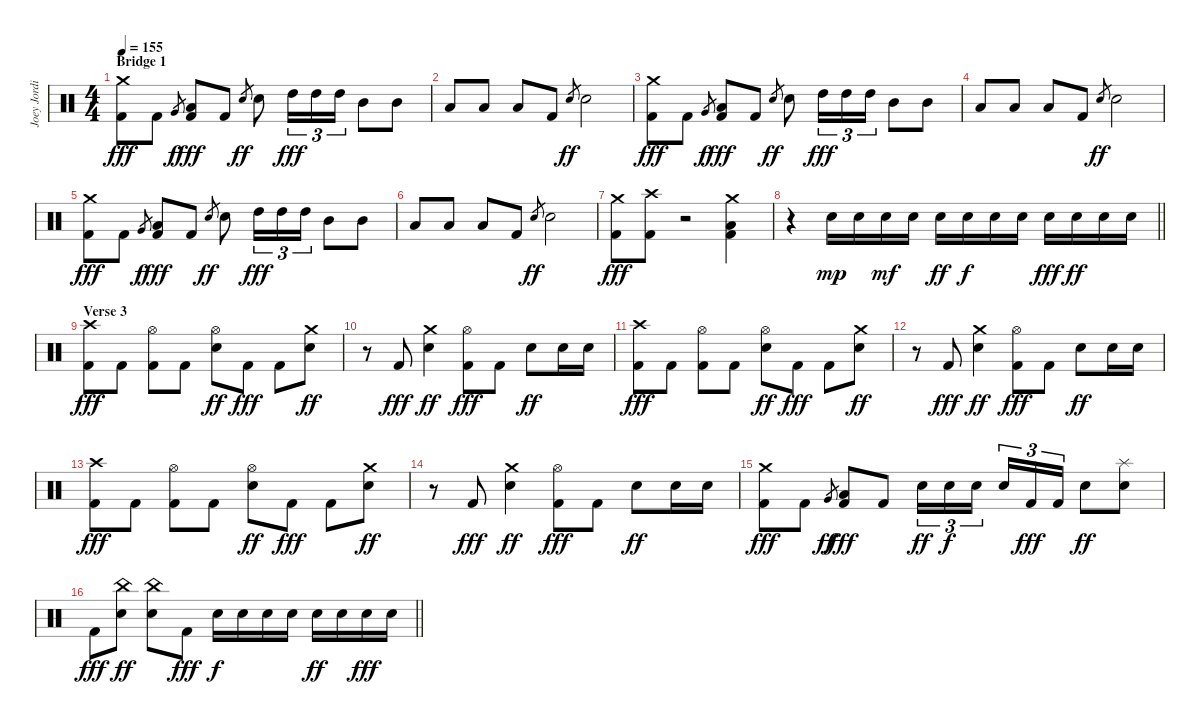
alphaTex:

\track ("Joey Jordison" "Joey Jordi") {instrument percussion}
\staff {score}
\articulation defaults
\ts (4 4)
\section ("" "Bridge 1")
\tempo 155
\clef neutral
\ks c
("Crash medium (hit)" "Kick (hit) 2").8{dy fff} "Kick (hit) 2".8 "Very Low Tom (hit)".8{gr dy f} ("Low Floor Tom (hit)" "Kick (hit) 2").8{dy fff} "Kick (hit) 2".8 "Electric Snare (hit)".8{gr dy ff} "Electric Snare (hit)".8 "High Tom (hit)".16{tu (3 2) dy fff} "High Tom (hit)".16{tu (3 2)} "High Tom (hit)".16{tu (3 2)} "Mid Tom (hit)".8 "Mid Tom (hit)".8 |
"Low Tom (hit)".8 "Low Tom (hit)".8 "Low Tom (hit)".8 "Kick (hit) 2".8 "Electric Snare (hit)".8{gr dy ff} "Electric Snare (hit)".2 |
("Crash medium (hit)" "Kick (hit) 2").8{dy fff} "Kick (hit) 2".8 "Very Low Tom (hit)".8{gr dy f} ("Low Floor Tom (hit)" "Kick (hit) 2").8{dy fff} "Kick (hit) 2".8 "Electric Snare (hit)".8{gr dy ff} "Electric Snare (hit)".8 "High Tom (hit)".16{tu (3 2) dy fff} "High Tom (hit)".16{tu (3 2)} "High Tom (hit)".16{tu (3 2)} "Mid Tom (hit)".8 "Mid Tom (hit)".8 |
"Low Tom (hit)".8 "Low Tom (hit)".8 "Low Tom (hit)".8 "Kick (hit) 2".8 "Electric Snare (hit)".8{gr dy ff} "Electric Snare (hit)".2 |
("Crash medium (hit)" "Kick (hit) 2").8{dy fff} "Kick (hit) 2".8 "Very Low Tom (hit)".8{gr dy f} ("Low Floor Tom (hit)" "Kick (hit) 2").8{dy fff} "Kick (hit) 2".8 "Electric Snare (hit)".8{gr dy ff} "Electric Snare (hit)".8 "High Tom (hit)".16{tu (3 2) dy fff} "High Tom (hit)".16{tu (3 2)} "High Tom (hit)".16{tu (3 2)} "Mid Tom (hit)".8 "Mid Tom (hit)".8 |
"Low Tom (hit)".8 "Low Tom (hit)".8 "Low Tom (hit)".8 "Kick (hit) 2".8 "Electric Snare (hit)".8{gr dy ff} "Electric Snare (hit)".2 |
("Crash medium (hit)" "Kick (hit) 2").8{dy fff} ("Crash high (hit)" "Kick (hit) 2").8 r.2{volume 0} ("Crash medium (hit)" "Low Floor Tom (hit)" "Kick (hit) 2").4{volume 13} |
\barLineRight lightlight
r.4 "Electric Snare (hit)".16{dy mp} "Electric Snare (hit)".16 "Electric Snare (hit)".16{dy mf} "Electric Snare (hit)".16 "Electric Snare (hit)".16{dy ff} "Electric Snare (hit)".16{dy f} "Electric Snare (hit)".16 "Electric Snare (hit)".16 "Electric Snare (hit)".16{dy fff} "Electric Snare (hit)".16{dy ff} "Electric Snare (hit)".16 "Electric Snare (hit)".16 |
\section ("" "Verse 3")
("Crash high (hit)" "Kick (hit) 2").8{dy fff} "Kick (hit) 2".8 ("Hi-Hat (open)" "Kick (hit) 2").8 "Kick (hit) 2".8 ("Hi-Hat (open)" "Electric Snare (hit)").8{dy ff} "Kick (hit) 2".8{dy fff} "Kick (hit) 2".8 ("Crash medium (hit)" "Electric Snare (hit)").8{dy ff} |
r.8 "Kick (hit) 2".8{dy fff} ("Crash medium (hit)" "Electric Snare (hit)").4{dy ff} ("Hi-Hat (open)" "Kick (hit) 2").8{dy fff} "Kick (hit) 2".8 "Electric Snare (hit)".8{dy ff} "Electric Snare (hit)".16 "Electric Snare (hit)".16 |
("Crash high (hit)" "Kick (hit) 2").8{dy fff} "Kick (hit) 2".8 ("Hi-Hat (open)" "Kick (hit) 2").8 "Kick (hit) 2".8 ("Hi-Hat (open)" "Electric Snare (hit)").8{dy ff} "Kick (hit) 2".8{dy fff} "Kick (hit) 2".8 ("Crash medium (hit)" "Electric Snare (hit)").8{dy ff} |
r.8 "Kick (hit) 2".8{dy fff} ("Crash medium (hit)" "Electric Snare (hit)").4{dy ff} ("Hi-Hat (open)" "Kick (hit) 2").8{dy fff} "Kick (hit) 2".8 "Electric Snare (hit)".8{dy ff} "Electric Snare (hit)".16 "Electric Snare (hit)".16 |
("Crash high (hit)" "Kick (hit) 2").8{dy fff} "Kick (hit) 2".8 ("Hi-Hat (open)" "Kick (hit) 2").8 "Kick (hit) 2".8 ("Hi-Hat (open)" "Electric Snare (hit)").8{dy ff} "Kick (hit) 2".8{dy fff} "Kick (hit) 2".8 ("Crash medium (hit)" "Electric Snare (hit)").8{dy ff} |
r.8 "Kick (hit) 2".8{dy fff} ("Crash medium (hit)" "Electric Snare (hit)").4{dy ff} ("Hi-Hat (open)" "Kick (hit) 2").8{dy fff} "Kick (hit) 2".8 "Electric Snare (hit)".8{dy ff} "Electric Snare (hit)".16 "Electric Snare (hit)".16 |
("Crash medium (hit)" "Kick (hit) 2").8{dy fff} "Kick (hit) 2".8 "Very Low Tom (hit)".8{gr dy ff} ("Low Floor Tom (hit)" "Kick (hit) 2").8{dy fff} "Kick (hit) 2".8 "Electric Snare (hit)".16{tu (3 2) dy ff} "Electric Snare (hit)".16{tu (3 2) dy f} "Electric Snare (hit)".16{tu (3 2) beam splitsecondary} "Electric Snare (hit)".16{tu (3 2)} "Kick (hit) 2".16{tu (3 2) dy fff} "Kick (hit) 2".16{tu (3 2)} "Electric Snare (hit)".8{dy ff} ("Splash (hit)" "Electric Snare (hit)").8 |
\barLineRight lightlight "Kick (hit) 2".8{dy fff}
("China (hit)" "Electric Snare (hit)").8{dy ff} ("China (hit)" "Electric Snare (hit)").8 "Kick (hit) 2".8{dy fff} "Electric Snare (hit)".16{dy f} "Electric Snare (hit)".16 "Electric Snare (hit)".16 "Electric Snare (hit)".16 "Electric Snare (hit)".16{dy ff} "Electric Snare (hit)".16 "Electric Snare (hit)".16{dy fff} "Electric Snare (hit)".16
